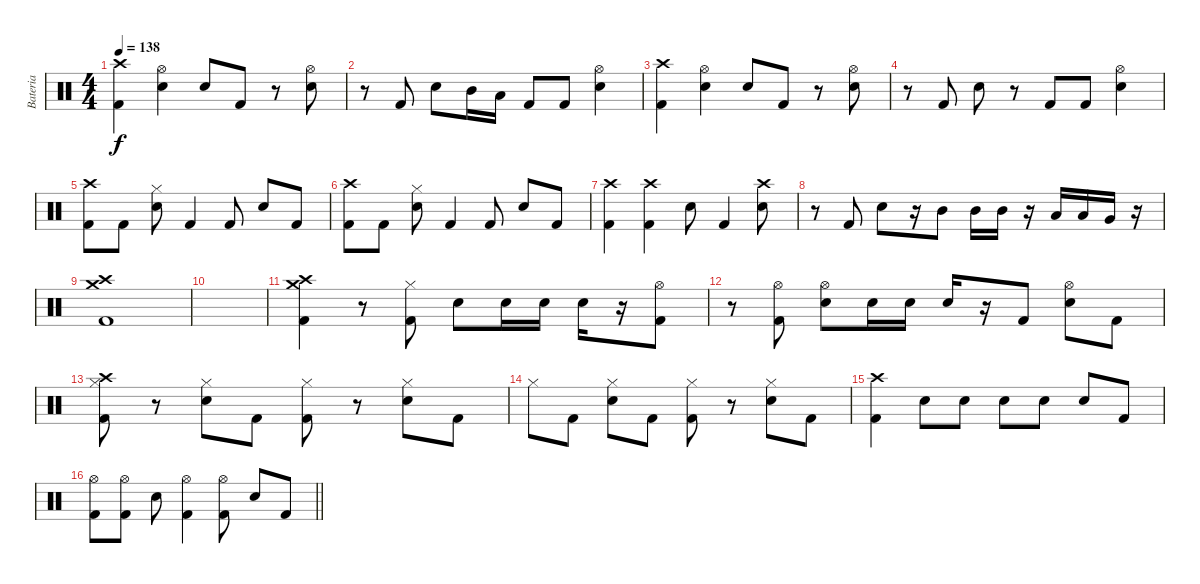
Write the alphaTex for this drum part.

\track ("Bateria" "Bateria") {instrument percussion}
\staff {score}
\articulation defaults
\ts (4 4)
\tempo 138
\clef neutral
\ks c
("Crash high (hit)" "Kick (hit) 2").4{dy f} ("Hi-Hat (open)" "Electric Snare (hit)").4 "Electric Snare (hit)".8 "Kick (hit) 2".8 r.8 ("Hi-Hat (open)" "Electric Snare (hit)").8 |
r.8 "Kick (hit) 2".8 "Electric Snare (hit)".8 "Mid Tom (hit)".16 "Low Tom (hit)".16 "Kick (hit) 2".8 "Kick (hit) 2".8 ("Hi-Hat (open)" "Electric Snare (hit)").4 |
("Crash high (hit)" "Kick (hit) 2").4 ("Hi-Hat (open)" "Electric Snare (hit)").4 "Electric Snare (hit)".8 "Kick (hit) 2".8 r.8 ("Hi-Hat (open)" "Electric Snare (hit)").8 |
r.8 "Kick (hit) 2".8 "Electric Snare (hit)".8 r.8 "Kick (hit) 2".8 "Kick (hit) 2".8 ("Hi-Hat (open)" "Electric Snare (hit)").4 |
("Crash high (hit)" "Kick (hit) 2").8 "Kick (hit) 2".8 ("Hi-Hat (closed)" "Electric Snare (hit)").8 "Kick (hit) 2".4 "Kick (hit) 2".8 "Electric Snare (hit)".8 "Kick (hit) 2".8 |
("Crash high (hit)" "Kick (hit) 2").8 "Kick (hit) 2".8 ("Hi-Hat (closed)" "Electric Snare (hit)").8 "Kick (hit) 2".4 "Kick (hit) 2".8 "Electric Snare (hit)".8 "Kick (hit) 2".8 |
("Crash high (hit)" "Kick (hit) 2").4 ("Crash high (hit)" "Kick (hit) 2").4 "Electric Snare (hit)".8 "Kick (hit) 2".4 ("Crash high (hit)" "Electric Snare (hit)").8 |
r.8 "Kick (hit) 2".8 "Electric Snare (hit)".8 r.16 "Mid Tom (hit)".8 "Mid Tom (hit)".16 "Mid Tom (hit)".16 r.16 "Low Tom (hit)".16 "Low Tom (hit)".16 "Very Low Tom (hit)".16 r.16 |
("Crash medium (hit)" "Crash high (hit)" "Kick (hit) 2").1 |
|
("Crash medium (hit)" "Crash high (hit)" "Kick (hit) 2").4 r.8 ("Hi-Hat (closed)" "Kick (hit) 2").8 "Electric Snare (hit)".8 "Electric Snare (hit)".16 "Electric Snare (hit)".16 "Electric Snare (hit)".16 r.16 ("Hi-Hat (open)" "Kick (hit) 2").8 |
r.8 ("Hi-Hat (open)" "Kick (hit) 2").8 ("Hi-Hat (open)" "Electric Snare (hit)").8 "Electric Snare (hit)".16 "Electric Snare (hit)".16 "Electric Snare (hit)".16 r.16 "Kick (hit) 2".8 ("Hi-Hat (open)" "Electric Snare (hit)").8 "Kick (hit) 2".8 |
("Crash high (hit)" "Hi-Hat (closed)" "Kick (hit) 2").8 r.8 ("Hi-Hat (closed)" "Electric Snare (hit)").8 "Kick (hit) 2".8 ("Hi-Hat (closed)" "Kick (hit) 2").8 r.8 ("Hi-Hat (closed)" "Electric Snare (hit)").8 "Kick (hit) 2".8 |
"Hi-Hat (closed)".8 "Kick (hit) 2".8 ("Hi-Hat (closed)" "Electric Snare (hit)").8 "Kick (hit) 2".8 ("Hi-Hat (closed)" "Kick (hit) 2").8 r.8 ("Hi-Hat (closed)" "Electric Snare (hit)").8 "Kick (hit) 2".8 |
("Crash high (hit)" "Kick (hit) 2").4 "Electric Snare (hit)".8 "Electric Snare (hit)".8 "Electric Snare (hit)".8 "Electric Snare (hit)".8 "Electric Snare (hit)".8 "Kick (hit) 2".8 |
\barLineRight lightlight
("Hi-Hat (open)" "Kick (hit) 2").8 ("Hi-Hat (open)" "Kick (hit) 2").8 "Electric Snare (hit)".8 ("Hi-Hat (open)" "Kick (hit) 2").4 ("Hi-Hat (open)" "Kick (hit) 2").8 "Electric Snare (hit)".8 "Kick (hit) 2".8
